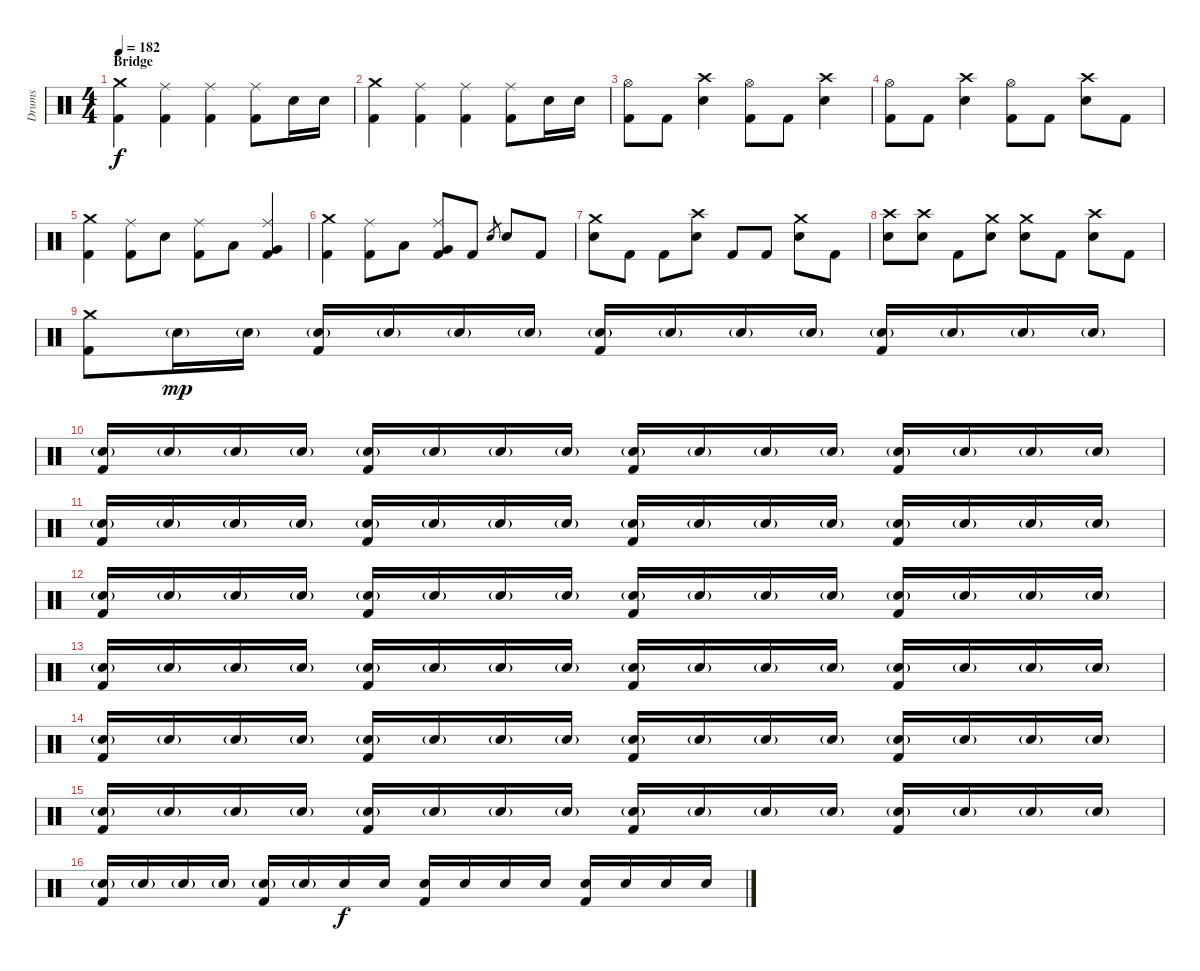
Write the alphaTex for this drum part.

\track ("Drums" "Drums") {instrument percussion}
\staff {score}
\articulation defaults
\ts (4 4)
\section ("" "Bridge")
\tempo 182
\clef neutral
\ks c
("Crash medium (hit)" "Kick (hit) 2").4{dy f} ("Ride (middle)" "Kick (hit) 2").4 ("Ride (middle)" "Kick (hit) 2").4 ("Ride (middle)" "Kick (hit) 2").8 "Electric Snare (hit)".16 "Electric Snare (hit)".16 |
("Crash medium (hit)" "Kick (hit) 2").4 ("Ride (middle)" "Kick (hit) 2").4 ("Ride (middle)" "Kick (hit) 2").4 ("Ride (middle)" "Kick (hit) 2").8 "Electric Snare (hit)".16 "Electric Snare (hit)".16 |
("Hi-Hat (open)" "Kick (hit) 2").8 "Kick (hit) 2".8 ("Crash high (hit)" "Electric Snare (hit)").4 ("Hi-Hat (open)" "Kick (hit) 2").8 "Kick (hit) 2".8 ("Crash high (hit)" "Electric Snare (hit)").4 |
("Hi-Hat (open)" "Kick (hit) 2").8 "Kick (hit) 2".8 ("Crash high (hit)" "Electric Snare (hit)").4 ("Hi-Hat (open)" "Kick (hit) 2").8 "Kick (hit) 2".8 ("Crash high (hit)" "Electric Snare (hit)").8 "Kick (hit) 2".8 |
("Crash medium (hit)" "Kick (hit) 2").4 ("Ride (middle)" "Kick (hit) 2").8 "Electric Snare (hit)".8 ("Ride (middle)" "Kick (hit) 2").8 "Low Tom (hit)".8 ("Ride (middle)" "Very Low Tom (hit)" "Kick (hit) 2").4 |
("Crash medium (hit)" "Kick (hit) 2").4 ("Ride (middle)" "Kick (hit) 2").8 "Low Tom (hit)".8 ("Ride (middle)" "Very Low Tom (hit)" "Kick (hit) 2").8 "Kick (hit) 2".8 "Electric Snare (hit)".8{gr} "Electric Snare (hit)".8 "Kick (hit) 2".8 |
("Crash medium (hit)" "Electric Snare (hit)").8 "Kick (hit) 2".8 "Kick (hit) 2".8 ("Crash high (hit)" "Electric Snare (hit)").8 "Kick (hit) 2".8 "Kick (hit) 2".8 ("Crash medium (hit)" "Electric Snare (hit)").8 "Kick (hit) 2".8 |
("Crash high (hit)" "Electric Snare (hit)").8 ("Crash high (hit)" "Electric Snare (hit)").8 "Kick (hit) 2".8 ("Crash medium (hit)" "Electric Snare (hit)").8 ("Crash medium (hit)" "Electric Snare (hit)").8 "Kick (hit) 2".8 ("Crash high (hit)" "Electric Snare (hit)").8 "Kick (hit) 2".8 |
("Crash medium (hit)" "Kick (hit) 2").8 "Electric Snare (hit)"{g}.16{dy mp} "Electric Snare (hit)"{g}.16 ("Electric Snare (hit)"{g} "Kick (hit) 2").16 "Electric Snare (hit)"{g}.16 "Electric Snare (hit)"{g}.16 "Electric Snare (hit)"{g}.16 ("Electric Snare (hit)"{g} "Kick (hit) 2").16 "Electric Snare (hit)"{g}.16 "Electric Snare (hit)"{g}.16 "Electric Snare (hit)"{g}.16 ("Electric Snare (hit)"{g} "Kick (hit) 2").16 "Electric Snare (hit)"{g}.16 "Electric Snare (hit)"{g}.16 "Electric Snare (hit)"{g}.16 |
("Electric Snare (hit)"{g} "Kick (hit) 2").16 "Electric Snare (hit)"{g}.16 "Electric Snare (hit)"{g}.16 "Electric Snare (hit)"{g}.16 ("Electric Snare (hit)"{g} "Kick (hit) 2").16 "Electric Snare (hit)"{g}.16 "Electric Snare (hit)"{g}.16 "Electric Snare (hit)"{g}.16 ("Electric Snare (hit)"{g} "Kick (hit) 2").16 "Electric Snare (hit)"{g}.16 "Electric Snare (hit)"{g}.16 "Electric Snare (hit)"{g}.16 ("Electric Snare (hit)"{g} "Kick (hit) 2").16 "Electric Snare (hit)"{g}.16 "Electric Snare (hit)"{g}.16 "Electric Snare (hit)"{g}.16 |
("Electric Snare (hit)"{g} "Kick (hit) 2").16 "Electric Snare (hit)"{g}.16 "Electric Snare (hit)"{g}.16 "Electric Snare (hit)"{g}.16 ("Electric Snare (hit)"{g} "Kick (hit) 2").16 "Electric Snare (hit)"{g}.16 "Electric Snare (hit)"{g}.16 "Electric Snare (hit)"{g}.16 ("Electric Snare (hit)"{g} "Kick (hit) 2").16 "Electric Snare (hit)"{g}.16 "Electric Snare (hit)"{g}.16 "Electric Snare (hit)"{g}.16 ("Electric Snare (hit)"{g} "Kick (hit) 2").16 "Electric Snare (hit)"{g}.16 "Electric Snare (hit)"{g}.16 "Electric Snare (hit)"{g}.16 |
("Electric Snare (hit)"{g} "Kick (hit) 2").16 "Electric Snare (hit)"{g}.16 "Electric Snare (hit)"{g}.16 "Electric Snare (hit)"{g}.16 ("Electric Snare (hit)"{g} "Kick (hit) 2").16 "Electric Snare (hit)"{g}.16 "Electric Snare (hit)"{g}.16 "Electric Snare (hit)"{g}.16 ("Electric Snare (hit)"{g} "Kick (hit) 2").16 "Electric Snare (hit)"{g}.16 "Electric Snare (hit)"{g}.16 "Electric Snare (hit)"{g}.16 ("Electric Snare (hit)"{g} "Kick (hit) 2").16 "Electric Snare (hit)"{g}.16 "Electric Snare (hit)"{g}.16 "Electric Snare (hit)"{g}.16 |
("Electric Snare (hit)"{g} "Kick (hit) 2").16 "Electric Snare (hit)"{g}.16 "Electric Snare (hit)"{g}.16 "Electric Snare (hit)"{g}.16 ("Electric Snare (hit)"{g} "Kick (hit) 2").16 "Electric Snare (hit)"{g}.16 "Electric Snare (hit)"{g}.16 "Electric Snare (hit)"{g}.16 ("Electric Snare (hit)"{g} "Kick (hit) 2").16 "Electric Snare (hit)"{g}.16 "Electric Snare (hit)"{g}.16 "Electric Snare (hit)"{g}.16 ("Electric Snare (hit)"{g} "Kick (hit) 2").16 "Electric Snare (hit)"{g}.16 "Electric Snare (hit)"{g}.16 "Electric Snare (hit)"{g}.16 |
("Electric Snare (hit)"{g} "Kick (hit) 2").16 "Electric Snare (hit)"{g}.16 "Electric Snare (hit)"{g}.16 "Electric Snare (hit)"{g}.16 ("Electric Snare (hit)"{g} "Kick (hit) 2").16 "Electric Snare (hit)"{g}.16 "Electric Snare (hit)"{g}.16 "Electric Snare (hit)"{g}.16 ("Electric Snare (hit)"{g} "Kick (hit) 2").16 "Electric Snare (hit)"{g}.16 "Electric Snare (hit)"{g}.16 "Electric Snare (hit)"{g}.16 ("Electric Snare (hit)"{g} "Kick (hit) 2").16 "Electric Snare (hit)"{g}.16 "Electric Snare (hit)"{g}.16 "Electric Snare (hit)"{g}.16 |
("Electric Snare (hit)"{g} "Kick (hit) 2").16 "Electric Snare (hit)"{g}.16 "Electric Snare (hit)"{g}.16 "Electric Snare (hit)"{g}.16 ("Electric Snare (hit)"{g} "Kick (hit) 2").16 "Electric Snare (hit)"{g}.16 "Electric Snare (hit)"{g}.16 "Electric Snare (hit)"{g}.16 ("Electric Snare (hit)"{g} "Kick (hit) 2").16 "Electric Snare (hit)"{g}.16 "Electric Snare (hit)"{g}.16 "Electric Snare (hit)"{g}.16 ("Electric Snare (hit)"{g} "Kick (hit) 2").16 "Electric Snare (hit)"{g}.16 "Electric Snare (hit)"{g}.16 "Electric Snare (hit)"{g}.16 |
("Electric Snare (hit)"{g} "Kick (hit) 2").16 "Electric Snare (hit)"{g}.16 "Electric Snare (hit)"{g}.16 "Electric Snare (hit)"{g}.16 ("Electric Snare (hit)"{g} "Kick (hit) 2").16 "Electric Snare (hit)"{g}.16 "Electric Snare (hit)".16{dy f} "Electric Snare (hit)".16 ("Electric Snare (hit)" "Kick (hit) 2").16 "Electric Snare (hit)".16 "Electric Snare (hit)".16 "Electric Snare (hit)".16 ("Electric Snare (hit)" "Kick (hit) 2").16 "Electric Snare (hit)".16 "Electric Snare (hit)".16 "Electric Snare (hit)".16
